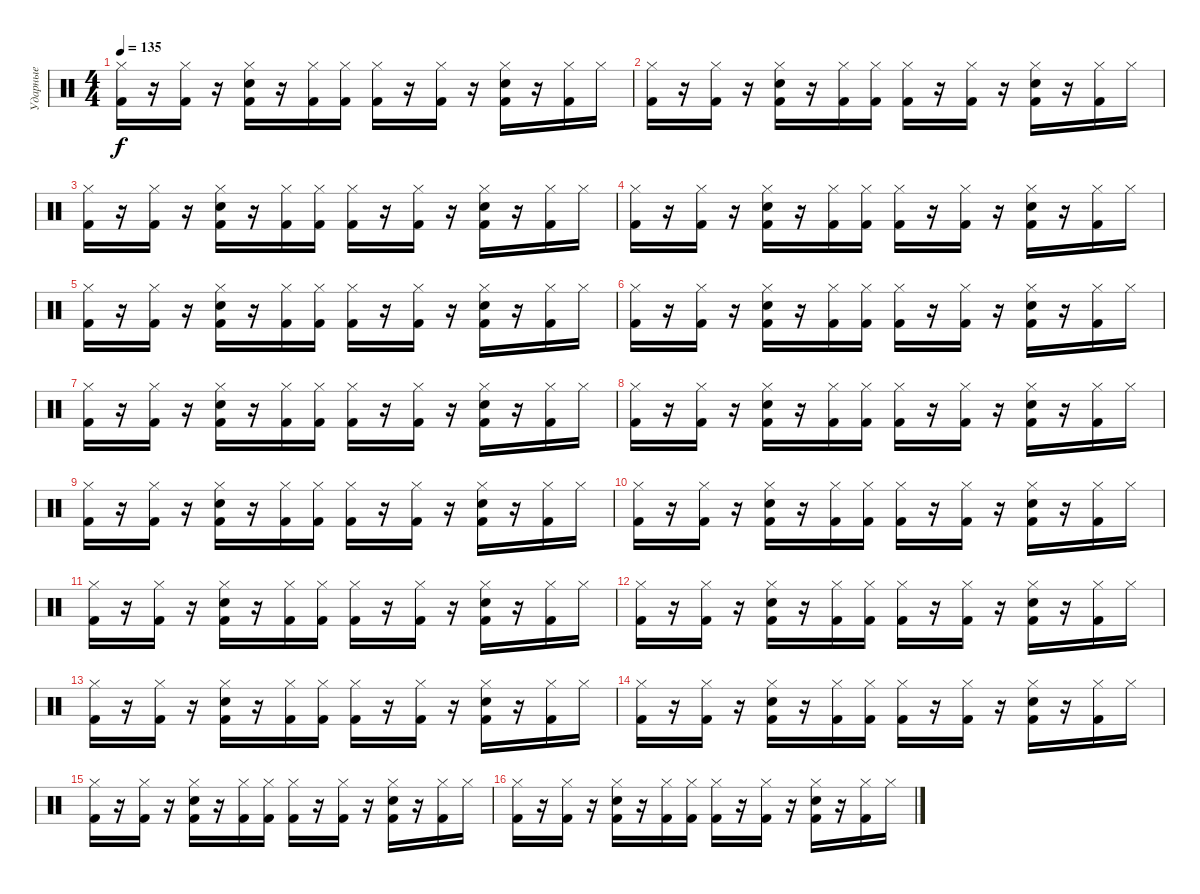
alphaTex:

\track ("Ударные" "Ударные") {instrument percussion}
\staff {score}
\articulation defaults
\ts (4 4)
\tempo 135
\clef neutral
\ks c
("Hi-Hat (closed)" "Kick (hit) 2").16{dy f} r.16 ("Hi-Hat (closed)" "Kick (hit) 2").16 r.16 ("Hi-Hat (closed)" "Electric Snare (hit)" "Kick (hit) 2").16 r.16 ("Hi-Hat (closed)" "Kick (hit) 2").16 ("Hi-Hat (closed)" "Kick (hit) 2").16 ("Hi-Hat (closed)" "Kick (hit) 2").16 r.16 ("Hi-Hat (closed)" "Kick (hit) 2").16 r.16 ("Hi-Hat (closed)" "Electric Snare (hit)" "Kick (hit) 2").16 r.16 ("Hi-Hat (closed)" "Kick (hit) 2").16 "Hi-Hat (closed)".16 |
("Hi-Hat (closed)" "Kick (hit) 2").16 r.16 ("Hi-Hat (closed)" "Kick (hit) 2").16 r.16 ("Hi-Hat (closed)" "Electric Snare (hit)" "Kick (hit) 2").16 r.16 ("Hi-Hat (closed)" "Kick (hit) 2").16 ("Hi-Hat (closed)" "Kick (hit) 2").16 ("Hi-Hat (closed)" "Kick (hit) 2").16 r.16 ("Hi-Hat (closed)" "Kick (hit) 2").16 r.16 ("Hi-Hat (closed)" "Electric Snare (hit)" "Kick (hit) 2").16 r.16 ("Hi-Hat (closed)" "Kick (hit) 2").16 "Hi-Hat (closed)".16 |
("Hi-Hat (closed)" "Kick (hit) 2").16 r.16 ("Hi-Hat (closed)" "Kick (hit) 2").16 r.16 ("Hi-Hat (closed)" "Electric Snare (hit)" "Kick (hit) 2").16 r.16 ("Hi-Hat (closed)" "Kick (hit) 2").16 ("Hi-Hat (closed)" "Kick (hit) 2").16 ("Hi-Hat (closed)" "Kick (hit) 2").16 r.16 ("Hi-Hat (closed)" "Kick (hit) 2").16 r.16 ("Hi-Hat (closed)" "Electric Snare (hit)" "Kick (hit) 2").16 r.16 ("Hi-Hat (closed)" "Kick (hit) 2").16 "Hi-Hat (closed)".16 |
("Hi-Hat (closed)" "Kick (hit) 2").16 r.16 ("Hi-Hat (closed)" "Kick (hit) 2").16 r.16 ("Hi-Hat (closed)" "Electric Snare (hit)" "Kick (hit) 2").16 r.16 ("Hi-Hat (closed)" "Kick (hit) 2").16 ("Hi-Hat (closed)" "Kick (hit) 2").16 ("Hi-Hat (closed)" "Kick (hit) 2").16 r.16 ("Hi-Hat (closed)" "Kick (hit) 2").16 r.16 ("Hi-Hat (closed)" "Electric Snare (hit)" "Kick (hit) 2").16 r.16 ("Hi-Hat (closed)" "Kick (hit) 2").16 "Hi-Hat (closed)".16 |
("Hi-Hat (closed)" "Kick (hit) 2").16 r.16 ("Hi-Hat (closed)" "Kick (hit) 2").16 r.16 ("Hi-Hat (closed)" "Electric Snare (hit)" "Kick (hit) 2").16 r.16 ("Hi-Hat (closed)" "Kick (hit) 2").16 ("Hi-Hat (closed)" "Kick (hit) 2").16 ("Hi-Hat (closed)" "Kick (hit) 2").16 r.16 ("Hi-Hat (closed)" "Kick (hit) 2").16 r.16 ("Hi-Hat (closed)" "Electric Snare (hit)" "Kick (hit) 2").16 r.16 ("Hi-Hat (closed)" "Kick (hit) 2").16 "Hi-Hat (closed)".16 |
("Hi-Hat (closed)" "Kick (hit) 2").16 r.16 ("Hi-Hat (closed)" "Kick (hit) 2").16 r.16 ("Hi-Hat (closed)" "Electric Snare (hit)" "Kick (hit) 2").16 r.16 ("Hi-Hat (closed)" "Kick (hit) 2").16 ("Hi-Hat (closed)" "Kick (hit) 2").16 ("Hi-Hat (closed)" "Kick (hit) 2").16 r.16 ("Hi-Hat (closed)" "Kick (hit) 2").16 r.16 ("Hi-Hat (closed)" "Electric Snare (hit)" "Kick (hit) 2").16 r.16 ("Hi-Hat (closed)" "Kick (hit) 2").16 "Hi-Hat (closed)".16 |
("Hi-Hat (closed)" "Kick (hit) 2").16 r.16 ("Hi-Hat (closed)" "Kick (hit) 2").16 r.16 ("Hi-Hat (closed)" "Electric Snare (hit)" "Kick (hit) 2").16 r.16 ("Hi-Hat (closed)" "Kick (hit) 2").16 ("Hi-Hat (closed)" "Kick (hit) 2").16 ("Hi-Hat (closed)" "Kick (hit) 2").16 r.16 ("Hi-Hat (closed)" "Kick (hit) 2").16 r.16 ("Hi-Hat (closed)" "Electric Snare (hit)" "Kick (hit) 2").16 r.16 ("Hi-Hat (closed)" "Kick (hit) 2").16 "Hi-Hat (closed)".16 |
("Hi-Hat (closed)" "Kick (hit) 2").16 r.16 ("Hi-Hat (closed)" "Kick (hit) 2").16 r.16 ("Hi-Hat (closed)" "Electric Snare (hit)" "Kick (hit) 2").16 r.16 ("Hi-Hat (closed)" "Kick (hit) 2").16 ("Hi-Hat (closed)" "Kick (hit) 2").16 ("Hi-Hat (closed)" "Kick (hit) 2").16 r.16 ("Hi-Hat (closed)" "Kick (hit) 2").16 r.16 ("Hi-Hat (closed)" "Electric Snare (hit)" "Kick (hit) 2").16 r.16 ("Hi-Hat (closed)" "Kick (hit) 2").16 "Hi-Hat (closed)".16 |
("Hi-Hat (closed)" "Kick (hit) 2").16 r.16 ("Hi-Hat (closed)" "Kick (hit) 2").16 r.16 ("Hi-Hat (closed)" "Electric Snare (hit)" "Kick (hit) 2").16 r.16 ("Hi-Hat (closed)" "Kick (hit) 2").16 ("Hi-Hat (closed)" "Kick (hit) 2").16 ("Hi-Hat (closed)" "Kick (hit) 2").16 r.16 ("Hi-Hat (closed)" "Kick (hit) 2").16 r.16 ("Hi-Hat (closed)" "Electric Snare (hit)" "Kick (hit) 2").16 r.16 ("Hi-Hat (closed)" "Kick (hit) 2").16 "Hi-Hat (closed)".16 |
("Hi-Hat (closed)" "Kick (hit) 2").16 r.16 ("Hi-Hat (closed)" "Kick (hit) 2").16 r.16 ("Hi-Hat (closed)" "Electric Snare (hit)" "Kick (hit) 2").16 r.16 ("Hi-Hat (closed)" "Kick (hit) 2").16 ("Hi-Hat (closed)" "Kick (hit) 2").16 ("Hi-Hat (closed)" "Kick (hit) 2").16 r.16 ("Hi-Hat (closed)" "Kick (hit) 2").16 r.16 ("Hi-Hat (closed)" "Electric Snare (hit)" "Kick (hit) 2").16 r.16 ("Hi-Hat (closed)" "Kick (hit) 2").16 "Hi-Hat (closed)".16 |
("Hi-Hat (closed)" "Kick (hit) 2").16 r.16 ("Hi-Hat (closed)" "Kick (hit) 2").16 r.16 ("Hi-Hat (closed)" "Electric Snare (hit)" "Kick (hit) 2").16 r.16 ("Hi-Hat (closed)" "Kick (hit) 2").16 ("Hi-Hat (closed)" "Kick (hit) 2").16 ("Hi-Hat (closed)" "Kick (hit) 2").16 r.16 ("Hi-Hat (closed)" "Kick (hit) 2").16 r.16 ("Hi-Hat (closed)" "Electric Snare (hit)" "Kick (hit) 2").16 r.16 ("Hi-Hat (closed)" "Kick (hit) 2").16 "Hi-Hat (closed)".16 |
("Hi-Hat (closed)" "Kick (hit) 2").16 r.16 ("Hi-Hat (closed)" "Kick (hit) 2").16 r.16 ("Hi-Hat (closed)" "Electric Snare (hit)" "Kick (hit) 2").16 r.16 ("Hi-Hat (closed)" "Kick (hit) 2").16 ("Hi-Hat (closed)" "Kick (hit) 2").16 ("Hi-Hat (closed)" "Kick (hit) 2").16 r.16 ("Hi-Hat (closed)" "Kick (hit) 2").16 r.16 ("Hi-Hat (closed)" "Electric Snare (hit)" "Kick (hit) 2").16 r.16 ("Hi-Hat (closed)" "Kick (hit) 2").16 "Hi-Hat (closed)".16 |
("Hi-Hat (closed)" "Kick (hit) 2").16 r.16 ("Hi-Hat (closed)" "Kick (hit) 2").16 r.16 ("Hi-Hat (closed)" "Electric Snare (hit)" "Kick (hit) 2").16 r.16 ("Hi-Hat (closed)" "Kick (hit) 2").16 ("Hi-Hat (closed)" "Kick (hit) 2").16 ("Hi-Hat (closed)" "Kick (hit) 2").16 r.16 ("Hi-Hat (closed)" "Kick (hit) 2").16 r.16 ("Hi-Hat (closed)" "Electric Snare (hit)" "Kick (hit) 2").16 r.16 ("Hi-Hat (closed)" "Kick (hit) 2").16 "Hi-Hat (closed)".16 |
("Hi-Hat (closed)" "Kick (hit) 2").16 r.16 ("Hi-Hat (closed)" "Kick (hit) 2").16 r.16 ("Hi-Hat (closed)" "Electric Snare (hit)" "Kick (hit) 2").16 r.16 ("Hi-Hat (closed)" "Kick (hit) 2").16 ("Hi-Hat (closed)" "Kick (hit) 2").16 ("Hi-Hat (closed)" "Kick (hit) 2").16 r.16 ("Hi-Hat (closed)" "Kick (hit) 2").16 r.16 ("Hi-Hat (closed)" "Electric Snare (hit)" "Kick (hit) 2").16 r.16 ("Hi-Hat (closed)" "Kick (hit) 2").16 "Hi-Hat (closed)".16 |
("Hi-Hat (closed)" "Kick (hit) 2").16 r.16 ("Hi-Hat (closed)" "Kick (hit) 2").16 r.16 ("Hi-Hat (closed)" "Electric Snare (hit)" "Kick (hit) 2").16 r.16 ("Hi-Hat (closed)" "Kick (hit) 2").16 ("Hi-Hat (closed)" "Kick (hit) 2").16 ("Hi-Hat (closed)" "Kick (hit) 2").16 r.16 ("Hi-Hat (closed)" "Kick (hit) 2").16 r.16 ("Hi-Hat (closed)" "Electric Snare (hit)" "Kick (hit) 2").16 r.16 ("Hi-Hat (closed)" "Kick (hit) 2").16 "Hi-Hat (closed)".16 |
("Hi-Hat (closed)" "Kick (hit) 2").16 r.16 ("Hi-Hat (closed)" "Kick (hit) 2").16 r.16 ("Hi-Hat (closed)" "Electric Snare (hit)" "Kick (hit) 2").16 r.16 ("Hi-Hat (closed)" "Kick (hit) 2").16 ("Hi-Hat (closed)" "Kick (hit) 2").16 ("Hi-Hat (closed)" "Kick (hit) 2").16 r.16 ("Hi-Hat (closed)" "Kick (hit) 2").16 r.16 ("Hi-Hat (closed)" "Electric Snare (hit)" "Kick (hit) 2").16 r.16 ("Hi-Hat (closed)" "Kick (hit) 2").16 "Hi-Hat (closed)".16
